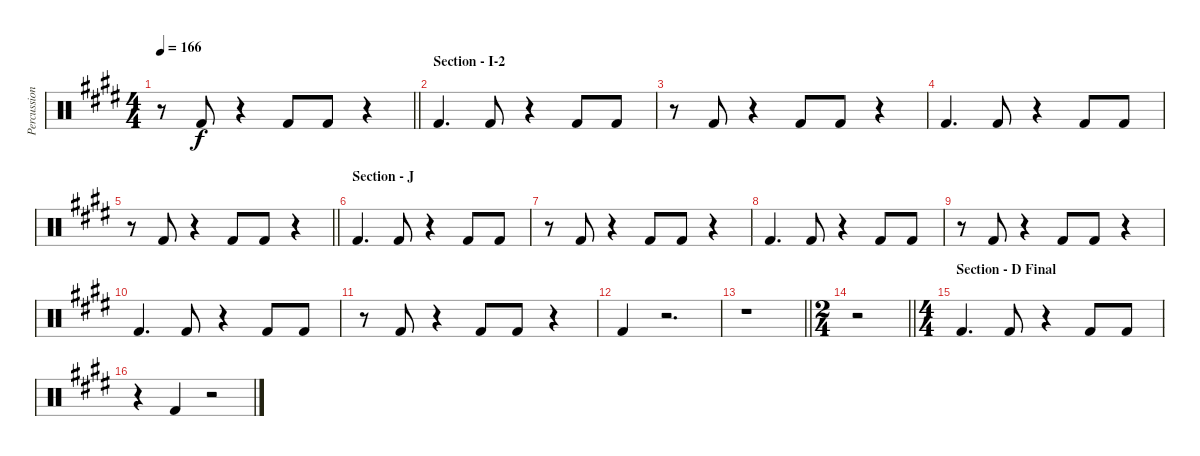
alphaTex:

\track ("Percussion - Other Again" "Percussion") {instrument percussion}
\staff {score}
\articulation defaults
\ts (4 4)
\tempo 166
\clef neutral
\barLineRight lightlight
\ks e
r.8{dy f} "Kick (hit) 2".8 r.4 "Kick (hit) 2".8 "Kick (hit) 2".8 r.4 |
\section ("" "Section - I-2")
"Kick (hit) 2".4{d} "Kick (hit) 2".8 r.4 "Kick (hit) 2".8 "Kick (hit) 2".8 |
r.8 "Kick (hit) 2".8 r.4 "Kick (hit) 2".8 "Kick (hit) 2".8 r.4 |
"Kick (hit) 2".4{d} "Kick (hit) 2".8 r.4 "Kick (hit) 2".8 "Kick (hit) 2".8 |
\barLineRight lightlight
r.8 "Kick (hit) 2".8 r.4 "Kick (hit) 2".8 "Kick (hit) 2".8 r.4 |
\section ("" "Section - J")
"Kick (hit) 2".4{d} "Kick (hit) 2".8 r.4 "Kick (hit) 2".8 "Kick (hit) 2".8 |
r.8 "Kick (hit) 2".8 r.4 "Kick (hit) 2".8 "Kick (hit) 2".8 r.4 |
"Kick (hit) 2".4{d} "Kick (hit) 2".8 r.4 "Kick (hit) 2".8 "Kick (hit) 2".8 |
r.8 "Kick (hit) 2".8 r.4 "Kick (hit) 2".8 "Kick (hit) 2".8 r.4 |
"Kick (hit) 2".4{d} "Kick (hit) 2".8 r.4 "Kick (hit) 2".8 "Kick (hit) 2".8 |
r.8 "Kick (hit) 2".8 r.4 "Kick (hit) 2".8 "Kick (hit) 2".8 r.4 |
"Kick (hit) 2".4 r.2{d} |
\barLineRight lightlight
r.1 |
\ts (2 4)
\barLineRight lightlight
r.2 |
\ts (4 4)
\section ("" "Section - D Final")
"Kick (hit) 2".4{d} "Kick (hit) 2".8 r.4 "Kick (hit) 2".8 "Kick (hit) 2".8 |
r.4 "Kick (hit) 2".4 r.2
